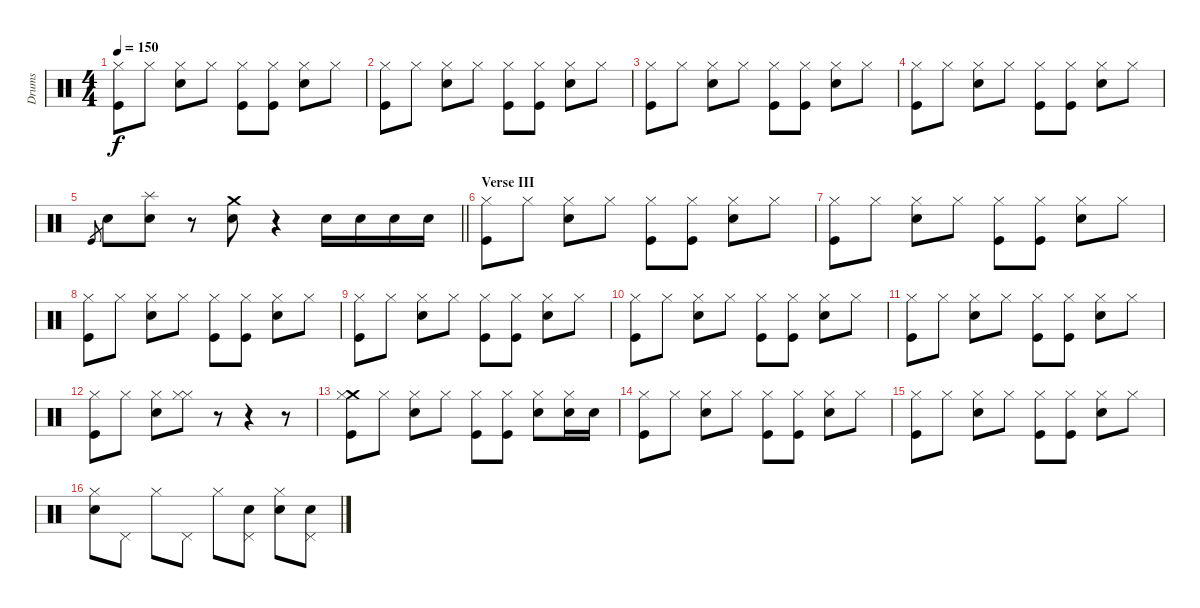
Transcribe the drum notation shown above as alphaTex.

\track ("Drums" "Drums") {instrument percussion}
\staff {score}
\articulation defaults
\ts (4 4)
\tempo 150
\clef neutral
\ks c
("Hi-Hat (closed)" "Kick (hit)").8{dy f} "Hi-Hat (closed)".8 ("Hi-Hat (closed)" "Electric Snare (hit)").8 "Hi-Hat (closed)".8 ("Hi-Hat (closed)" "Kick (hit)").8 ("Hi-Hat (closed)" "Kick (hit)").8 ("Hi-Hat (closed)" "Electric Snare (hit)").8 "Hi-Hat (closed)".8 |
("Hi-Hat (closed)" "Kick (hit)").8 "Hi-Hat (closed)".8 ("Hi-Hat (closed)" "Electric Snare (hit)").8 "Hi-Hat (closed)".8 ("Hi-Hat (closed)" "Kick (hit)").8 ("Hi-Hat (closed)" "Kick (hit)").8 ("Hi-Hat (closed)" "Electric Snare (hit)").8 "Hi-Hat (closed)".8 |
("Hi-Hat (closed)" "Kick (hit)").8 "Hi-Hat (closed)".8 ("Hi-Hat (closed)" "Electric Snare (hit)").8 "Hi-Hat (closed)".8 ("Hi-Hat (closed)" "Kick (hit)").8 ("Hi-Hat (closed)" "Kick (hit)").8 ("Hi-Hat (closed)" "Electric Snare (hit)").8 "Hi-Hat (closed)".8 |
("Hi-Hat (closed)" "Kick (hit)").8 "Hi-Hat (closed)".8 ("Hi-Hat (closed)" "Electric Snare (hit)").8 "Hi-Hat (closed)".8 ("Hi-Hat (closed)" "Kick (hit)").8 ("Hi-Hat (closed)" "Kick (hit)").8 ("Hi-Hat (closed)" "Electric Snare (hit)").8 "Hi-Hat (closed)".8 |
\barLineRight lightlight "Kick (hit)".8{gr} "Electric Snare (hit)".8
("Splash (hit)" "Electric Snare (hit)").8 r.8 ("Crash medium (hit)" "Electric Snare (hit)").8 r.4 "Electric Snare (hit)".16 "Electric Snare (hit)".16 "Electric Snare (hit)".16 "Electric Snare (hit)".16 |
\section ("" "Verse III")
("Hi-Hat (closed)" "Kick (hit)").8 "Hi-Hat (closed)".8 ("Hi-Hat (closed)" "Electric Snare (hit)").8 "Hi-Hat (closed)".8 ("Hi-Hat (closed)" "Kick (hit)").8 ("Hi-Hat (closed)" "Kick (hit)").8 ("Hi-Hat (closed)" "Electric Snare (hit)").8 "Hi-Hat (closed)".8 |
("Hi-Hat (closed)" "Kick (hit)").8 "Hi-Hat (closed)".8 ("Hi-Hat (closed)" "Electric Snare (hit)").8 "Hi-Hat (closed)".8 ("Hi-Hat (closed)" "Kick (hit)").8 ("Hi-Hat (closed)" "Kick (hit)").8 ("Hi-Hat (closed)" "Electric Snare (hit)").8 "Hi-Hat (closed)".8 |
("Hi-Hat (closed)" "Kick (hit)").8 "Hi-Hat (closed)".8 ("Hi-Hat (closed)" "Electric Snare (hit)").8 "Hi-Hat (closed)".8 ("Hi-Hat (closed)" "Kick (hit)").8 ("Hi-Hat (closed)" "Kick (hit)").8 ("Hi-Hat (closed)" "Electric Snare (hit)").8 "Hi-Hat (closed)".8 |
("Hi-Hat (closed)" "Kick (hit)").8 "Hi-Hat (closed)".8 ("Hi-Hat (closed)" "Electric Snare (hit)").8 "Hi-Hat (closed)".8 ("Hi-Hat (closed)" "Kick (hit)").8 ("Hi-Hat (closed)" "Kick (hit)").8 ("Hi-Hat (closed)" "Electric Snare (hit)").8 "Hi-Hat (closed)".8 |
("Hi-Hat (closed)" "Kick (hit)").8 "Hi-Hat (closed)".8 ("Hi-Hat (closed)" "Electric Snare (hit)").8 "Hi-Hat (closed)".8 ("Hi-Hat (closed)" "Kick (hit)").8 ("Hi-Hat (closed)" "Kick (hit)").8 ("Hi-Hat (closed)" "Electric Snare (hit)").8 "Hi-Hat (closed)".8 |
("Hi-Hat (closed)" "Kick (hit)").8 "Hi-Hat (closed)".8 ("Hi-Hat (closed)" "Electric Snare (hit)").8 "Hi-Hat (closed)".8 ("Hi-Hat (closed)" "Kick (hit)").8 ("Hi-Hat (closed)" "Kick (hit)").8 ("Hi-Hat (closed)" "Electric Snare (hit)").8 "Hi-Hat (closed)".8 |
("Hi-Hat (closed)" "Kick (hit)").8 "Hi-Hat (closed)".8 ("Hi-Hat (closed)" "Electric Snare (hit)").8 ("Hi-Hat (closed)" "Hi-Hat (closed)").8 r.8 r.4 r.8 |
("Crash medium (hit)" "Hi-Hat (closed)" "Kick (hit)").8 "Hi-Hat (closed)".8 ("Hi-Hat (closed)" "Electric Snare (hit)").8 "Hi-Hat (closed)".8 ("Hi-Hat (closed)" "Kick (hit)").8 ("Hi-Hat (closed)" "Kick (hit)").8 ("Hi-Hat (closed)" "Electric Snare (hit)").8 ("Hi-Hat (closed)" "Electric Snare (hit)").16 "Electric Snare (hit)".16 |
("Hi-Hat (closed)" "Kick (hit)").8 "Hi-Hat (closed)".8 ("Hi-Hat (closed)" "Electric Snare (hit)").8 "Hi-Hat (closed)".8 ("Hi-Hat (closed)" "Kick (hit)").8 ("Hi-Hat (closed)" "Kick (hit)").8 ("Hi-Hat (closed)" "Electric Snare (hit)").8 "Hi-Hat (closed)".8 |
("Hi-Hat (closed)" "Kick (hit)").8 "Hi-Hat (closed)".8 ("Hi-Hat (closed)" "Electric Snare (hit)").8 "Hi-Hat (closed)".8 ("Hi-Hat (closed)" "Kick (hit)").8 ("Hi-Hat (closed)" "Kick (hit)").8 ("Hi-Hat (closed)" "Electric Snare (hit)").8 "Hi-Hat (closed)".8 |
("Hi-Hat (closed)" "Electric Snare (hit)").8 "Pedal Hi-Hat (hit)".8 "Hi-Hat (closed)".8 "Pedal Hi-Hat (hit)".8 "Hi-Hat (closed)".8 ("Pedal Hi-Hat (hit)" "Electric Snare (hit)").8 ("Hi-Hat (closed)" "Electric Snare (hit)").8 ("Pedal Hi-Hat (hit)" "Electric Snare (hit)").8
